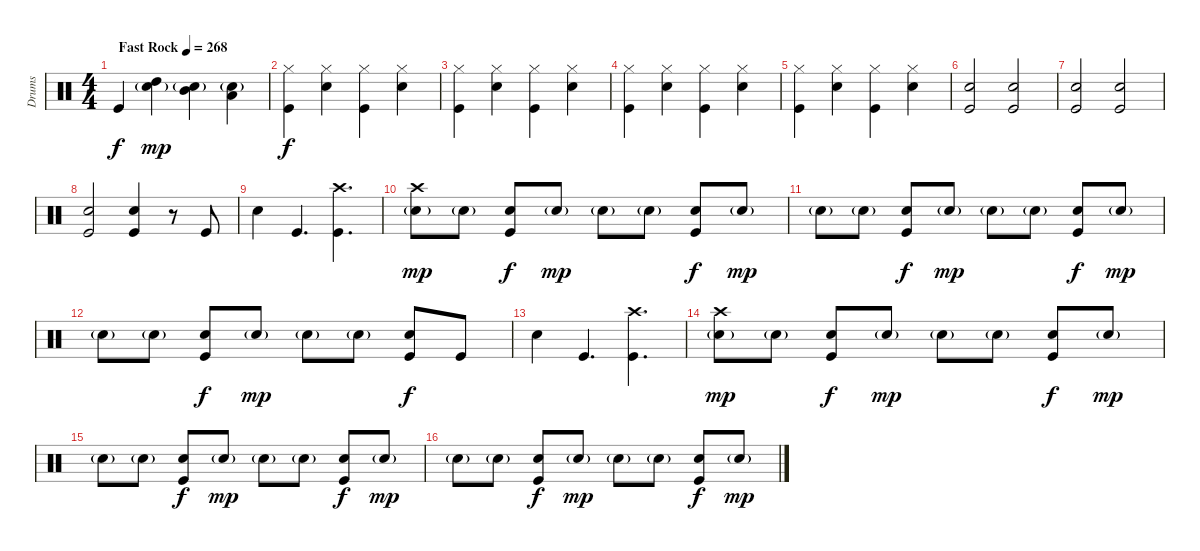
\track ("Drums" "Drums") {instrument percussion}
\staff {score}
\articulation defaults
\ts (4 4)
\tempo (268 "Fast Rock")
\clef neutral
\ks c "Kick (hit)".4{dy f}
("High Tom (hit)" "Electric Snare (hit)"{g}).4{dy mp} ("Mid Tom (hit)" "Electric Snare (hit)"{g}).4 ("Low Tom (hit)" "Electric Snare (hit)"{g}).4 |
("Hi-Hat (closed)" "Kick (hit)").4{dy f} ("Hi-Hat (closed)" "Electric Snare (hit)").4 ("Hi-Hat (closed)" "Kick (hit)").4 ("Hi-Hat (closed)" "Electric Snare (hit)").4 |
("Hi-Hat (closed)" "Kick (hit)").4 ("Hi-Hat (closed)" "Electric Snare (hit)").4 ("Hi-Hat (closed)" "Kick (hit)").4 ("Hi-Hat (closed)" "Electric Snare (hit)").4 |
("Hi-Hat (closed)" "Kick (hit)").4 ("Hi-Hat (closed)" "Electric Snare (hit)").4 ("Hi-Hat (closed)" "Kick (hit)").4 ("Hi-Hat (closed)" "Electric Snare (hit)").4 |
("Hi-Hat (closed)" "Kick (hit)").4 ("Hi-Hat (closed)" "Electric Snare (hit)").4 ("Hi-Hat (closed)" "Kick (hit)").4 ("Hi-Hat (closed)" "Electric Snare (hit)").4 |
("Electric Snare (hit)" "Kick (hit)").2 ("Electric Snare (hit)" "Kick (hit)").2 |
("Electric Snare (hit)" "Kick (hit)").2 ("Electric Snare (hit)" "Kick (hit)").2 |
("Electric Snare (hit)" "Kick (hit)").2 ("Electric Snare (hit)" "Kick (hit)").4 r.8 "Kick (hit)".8 |
"Electric Snare (hit)".4 "Kick (hit)".4{d} ("Crash high (hit)" "Kick (hit)").4{d} |
("Crash high (hit)" "Electric Snare (hit)"{g}).8{dy mp} "Electric Snare (hit)"{g}.8 ("Electric Snare (hit)" "Kick (hit)").8{dy f} "Electric Snare (hit)"{g}.8{dy mp} "Electric Snare (hit)"{g}.8 "Electric Snare (hit)"{g}.8 ("Electric Snare (hit)" "Kick (hit)").8{dy f} "Electric Snare (hit)"{g}.8{dy mp} |
"Electric Snare (hit)"{g}.8 "Electric Snare (hit)"{g}.8 ("Electric Snare (hit)" "Kick (hit)").8{dy f} "Electric Snare (hit)"{g}.8{dy mp} "Electric Snare (hit)"{g}.8 "Electric Snare (hit)"{g}.8 ("Electric Snare (hit)" "Kick (hit)").8{dy f} "Electric Snare (hit)"{g}.8{dy mp} |
"Electric Snare (hit)"{g}.8 "Electric Snare (hit)"{g}.8 ("Electric Snare (hit)" "Kick (hit)").8{dy f} "Electric Snare (hit)"{g}.8{dy mp} "Electric Snare (hit)"{g}.8 "Electric Snare (hit)"{g}.8 ("Electric Snare (hit)" "Kick (hit)").8{dy f} "Kick (hit)".8 |
"Electric Snare (hit)".4 "Kick (hit)".4{d} ("Crash high (hit)" "Kick (hit)").4{d} |
("Crash high (hit)" "Electric Snare (hit)"{g}).8{dy mp} "Electric Snare (hit)"{g}.8 ("Electric Snare (hit)" "Kick (hit)").8{dy f} "Electric Snare (hit)"{g}.8{dy mp} "Electric Snare (hit)"{g}.8 "Electric Snare (hit)"{g}.8 ("Electric Snare (hit)" "Kick (hit)").8{dy f} "Electric Snare (hit)"{g}.8{dy mp} |
"Electric Snare (hit)"{g}.8 "Electric Snare (hit)"{g}.8 ("Electric Snare (hit)" "Kick (hit)").8{dy f} "Electric Snare (hit)"{g}.8{dy mp} "Electric Snare (hit)"{g}.8 "Electric Snare (hit)"{g}.8 ("Electric Snare (hit)" "Kick (hit)").8{dy f} "Electric Snare (hit)"{g}.8{dy mp} |
"Electric Snare (hit)"{g}.8 "Electric Snare (hit)"{g}.8 ("Electric Snare (hit)" "Kick (hit)").8{dy f} "Electric Snare (hit)"{g}.8{dy mp} "Electric Snare (hit)"{g}.8 "Electric Snare (hit)"{g}.8 ("Electric Snare (hit)" "Kick (hit)").8{dy f} "Electric Snare (hit)"{g}.8{dy mp}
